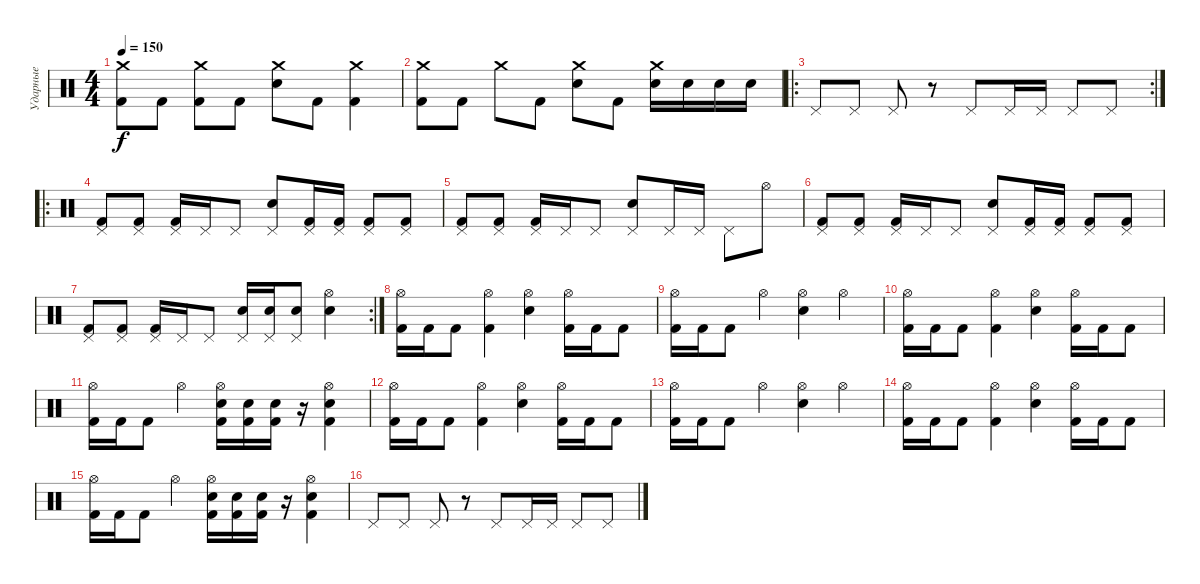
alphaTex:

\track ("Ударные" "Ударные") {instrument percussion}
\staff {score}
\articulation defaults
\ts (4 4)
\tempo 150
\clef neutral
\ks c
("Crash medium (hit)" "Kick (hit) 2").8{dy f} "Kick (hit) 2".8 ("Crash medium (hit)" "Kick (hit) 2").8 "Kick (hit) 2".8 ("Crash medium (hit)" "Electric Snare (hit)").8 "Kick (hit) 2".8 ("Crash medium (hit)" "Kick (hit) 2").4 |
("Crash medium (hit)" "Kick (hit) 2").8 "Kick (hit) 2".8 "Crash medium (hit)".8 "Kick (hit) 2".8 ("Crash medium (hit)" "Electric Snare (hit)").8 "Kick (hit) 2".8 ("Crash medium (hit)" "Electric Snare (hit)").16 "Electric Snare (hit)".16 "Electric Snare (hit)".16 "Electric Snare (hit)".16 |
\ro
\rc 2 "Pedal Hi-Hat (hit)".8 "Pedal Hi-Hat (hit)".8 "Pedal Hi-Hat (hit)".8
r.8 "Pedal Hi-Hat (hit)".8 "Pedal Hi-Hat (hit)".16 "Pedal Hi-Hat (hit)".16 "Pedal Hi-Hat (hit)".8 "Pedal Hi-Hat (hit)".8 |
\ro
("Pedal Hi-Hat (hit)" "Kick (hit) 2").8 ("Pedal Hi-Hat (hit)" "Kick (hit) 2").8 ("Pedal Hi-Hat (hit)" "Kick (hit) 2").16 "Pedal Hi-Hat (hit)".16 "Pedal Hi-Hat (hit)".8 ("Pedal Hi-Hat (hit)" "Hand Clap (hit)").8 ("Pedal Hi-Hat (hit)" "Kick (hit) 2").16 ("Pedal Hi-Hat (hit)" "Kick (hit) 2").16 ("Pedal Hi-Hat (hit)" "Kick (hit) 2").8 ("Pedal Hi-Hat (hit)" "Kick (hit) 2").8 |
("Pedal Hi-Hat (hit)" "Kick (hit) 2").8 ("Pedal Hi-Hat (hit)" "Kick (hit) 2").8 ("Pedal Hi-Hat (hit)" "Kick (hit) 2").16 "Pedal Hi-Hat (hit)".16 "Pedal Hi-Hat (hit)".8 ("Pedal Hi-Hat (hit)" "Hand Clap (hit)").8 "Pedal Hi-Hat (hit)".16 "Pedal Hi-Hat (hit)".16 "Pedal Hi-Hat (hit)".8 "Hi-Hat (open)".8 |
("Pedal Hi-Hat (hit)" "Kick (hit) 2").8 ("Pedal Hi-Hat (hit)" "Kick (hit) 2").8 ("Pedal Hi-Hat (hit)" "Kick (hit) 2").16 "Pedal Hi-Hat (hit)".16 "Pedal Hi-Hat (hit)".8 ("Pedal Hi-Hat (hit)" "Hand Clap (hit)").8 ("Pedal Hi-Hat (hit)" "Kick (hit) 2").16 ("Pedal Hi-Hat (hit)" "Kick (hit) 2").16 ("Pedal Hi-Hat (hit)" "Kick (hit) 2").8 ("Pedal Hi-Hat (hit)" "Kick (hit) 2").8 |
\rc 2
("Pedal Hi-Hat (hit)" "Kick (hit) 2").8 ("Pedal Hi-Hat (hit)" "Kick (hit) 2").8 ("Pedal Hi-Hat (hit)" "Kick (hit) 2").16 "Pedal Hi-Hat (hit)".16 "Pedal Hi-Hat (hit)".8 ("Pedal Hi-Hat (hit)" "Hand Clap (hit)").16 ("Pedal Hi-Hat (hit)" "Hand Clap (hit)").16 ("Pedal Hi-Hat (hit)" "Hand Clap (hit)").8 ("Hi-Hat (open)" "Hand Clap (hit)").4 |
("Hi-Hat (open)" "Kick (hit) 2").16 "Kick (hit) 2".16 "Kick (hit) 2".8 ("Hi-Hat (open)" "Kick (hit) 2").4 ("Hi-Hat (open)" "Electric Snare (hit)").4 ("Hi-Hat (open)" "Kick (hit) 2").16 "Kick (hit) 2".16 "Kick (hit) 2".8 |
("Hi-Hat (open)" "Kick (hit) 2").16 "Kick (hit) 2".16 "Kick (hit) 2".8 "Hi-Hat (open)".4 ("Hi-Hat (open)" "Electric Snare (hit)").4 "Hi-Hat (open)".4 |
("Hi-Hat (open)" "Kick (hit) 2").16 "Kick (hit) 2".16 "Kick (hit) 2".8 ("Hi-Hat (open)" "Kick (hit) 2").4 ("Hi-Hat (open)" "Electric Snare (hit)").4 ("Hi-Hat (open)" "Kick (hit) 2").16 "Kick (hit) 2".16 "Kick (hit) 2".8 |
("Hi-Hat (open)" "Kick (hit) 2").16 "Kick (hit) 2".16 "Kick (hit) 2".8 "Hi-Hat (open)".4 ("Hi-Hat (open)" "Electric Snare (hit)" "Kick (hit) 2").16 ("Electric Snare (hit)" "Kick (hit) 2").16 ("Electric Snare (hit)" "Kick (hit) 2").16 r.16 ("Hi-Hat (open)" "Electric Snare (hit)" "Kick (hit) 2").4 |
("Hi-Hat (open)" "Kick (hit) 2").16 "Kick (hit) 2".16 "Kick (hit) 2".8 ("Hi-Hat (open)" "Kick (hit) 2").4 ("Hi-Hat (open)" "Electric Snare (hit)").4 ("Hi-Hat (open)" "Kick (hit) 2").16 "Kick (hit) 2".16 "Kick (hit) 2".8 |
("Hi-Hat (open)" "Kick (hit) 2").16 "Kick (hit) 2".16 "Kick (hit) 2".8 "Hi-Hat (open)".4 ("Hi-Hat (open)" "Electric Snare (hit)").4 "Hi-Hat (open)".4 |
("Hi-Hat (open)" "Kick (hit) 2").16 "Kick (hit) 2".16 "Kick (hit) 2".8 ("Hi-Hat (open)" "Kick (hit) 2").4 ("Hi-Hat (open)" "Electric Snare (hit)").4 ("Hi-Hat (open)" "Kick (hit) 2").16 "Kick (hit) 2".16 "Kick (hit) 2".8 |
("Hi-Hat (open)" "Kick (hit) 2").16 "Kick (hit) 2".16 "Kick (hit) 2".8 "Hi-Hat (open)".4 ("Hi-Hat (open)" "Electric Snare (hit)" "Kick (hit) 2").16 ("Electric Snare (hit)" "Kick (hit) 2").16 ("Electric Snare (hit)" "Kick (hit) 2").16 r.16 ("Hi-Hat (open)" "Electric Snare (hit)" "Kick (hit) 2").4 |
"Pedal Hi-Hat (hit)".8 "Pedal Hi-Hat (hit)".8 "Pedal Hi-Hat (hit)".8 r.8 "Pedal Hi-Hat (hit)".8 "Pedal Hi-Hat (hit)".16 "Pedal Hi-Hat (hit)".16 "Pedal Hi-Hat (hit)".8 "Pedal Hi-Hat (hit)".8
